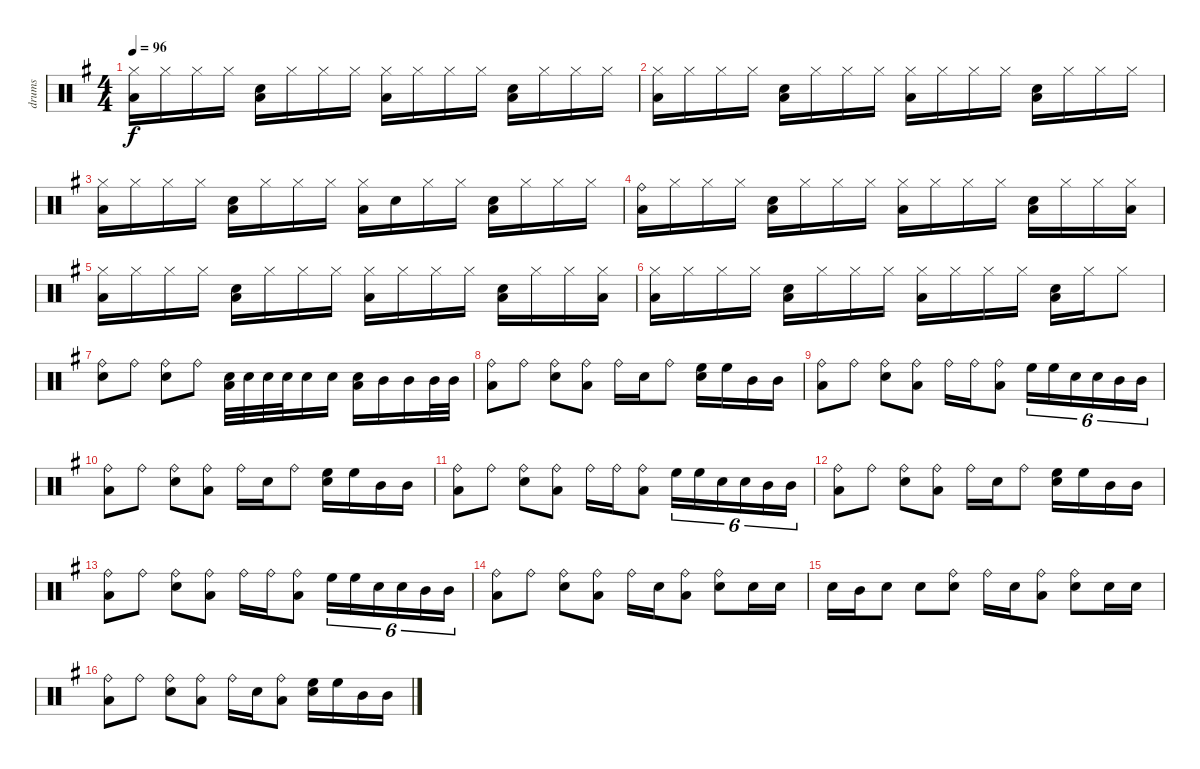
\track ("drums" "drums") {instrument percussion}
\staff {score}
\articulation defaults
\ts (4 4)
\tempo 96
\clef neutral
\ks g
("Hi-Hat (closed)" "Low Floor Tom (hit)").16{dy f} "Hi-Hat (closed)".16 "Hi-Hat (closed)".16 "Hi-Hat (closed)".16 ("Electric Snare (hit)" "Low Floor Tom (hit)").16 "Hi-Hat (closed)".16 "Hi-Hat (closed)".16 "Hi-Hat (closed)".16 ("Hi-Hat (closed)" "Low Floor Tom (hit)").16 "Hi-Hat (closed)".16 "Hi-Hat (closed)".16 "Hi-Hat (closed)".16 ("Electric Snare (hit)" "Low Floor Tom (hit)").16 "Hi-Hat (closed)".16 "Hi-Hat (closed)".16 "Hi-Hat (closed)".16 |
("Hi-Hat (closed)" "Low Floor Tom (hit)").16 "Hi-Hat (closed)".16 "Hi-Hat (closed)".16 "Hi-Hat (closed)".16 ("Electric Snare (hit)" "Low Floor Tom (hit)").16 "Hi-Hat (closed)".16 "Hi-Hat (closed)".16 "Hi-Hat (closed)".16 ("Hi-Hat (closed)" "Low Floor Tom (hit)").16 "Hi-Hat (closed)".16 "Hi-Hat (closed)".16 "Hi-Hat (closed)".16 ("Electric Snare (hit)" "Low Floor Tom (hit)").16 "Hi-Hat (closed)".16 "Hi-Hat (closed)".16 "Hi-Hat (closed)".16 |
("Hi-Hat (closed)" "Low Floor Tom (hit)").16 "Hi-Hat (closed)".16 "Hi-Hat (closed)".16 "Hi-Hat (closed)".16 ("Electric Snare (hit)" "Low Floor Tom (hit)").16 "Hi-Hat (closed)".16 "Hi-Hat (closed)".16 "Hi-Hat (closed)".16 ("Hi-Hat (closed)" "Low Floor Tom (hit)").16 "Electric Snare (hit)".16 "Hi-Hat (closed)".16 "Hi-Hat (closed)".16 ("Electric Snare (hit)" "Low Floor Tom (hit)").16 "Hi-Hat (closed)".16 "Hi-Hat (closed)".16 "Hi-Hat (closed)".16 |
("Ride (bell)" "Low Floor Tom (hit)").16 "Hi-Hat (closed)".16 "Hi-Hat (closed)".16 "Hi-Hat (closed)".16 ("Electric Snare (hit)" "Low Floor Tom (hit)").16 "Hi-Hat (closed)".16 "Hi-Hat (closed)".16 "Hi-Hat (closed)".16 ("Hi-Hat (closed)" "Low Floor Tom (hit)").16 "Hi-Hat (closed)".16 "Hi-Hat (closed)".16 "Hi-Hat (closed)".16 ("Electric Snare (hit)" "Low Floor Tom (hit)").16 "Hi-Hat (closed)".16 "Hi-Hat (closed)".16 ("Hi-Hat (closed)" "Low Floor Tom (hit)").16 |
("Hi-Hat (closed)" "Low Floor Tom (hit)").16 "Hi-Hat (closed)".16 "Hi-Hat (closed)".16 "Hi-Hat (closed)".16 ("Electric Snare (hit)" "Low Floor Tom (hit)").16 "Hi-Hat (closed)".16 "Hi-Hat (closed)".16 "Hi-Hat (closed)".16 ("Hi-Hat (closed)" "Low Floor Tom (hit)").16 "Hi-Hat (closed)".16 "Hi-Hat (closed)".16 "Hi-Hat (closed)".16 ("Electric Snare (hit)" "Low Floor Tom (hit)").16 "Hi-Hat (closed)".16 "Hi-Hat (closed)".16 ("Hi-Hat (closed)" "Low Floor Tom (hit)").16 |
("Hi-Hat (closed)" "Low Floor Tom (hit)").16 "Hi-Hat (closed)".16 "Hi-Hat (closed)".16 "Hi-Hat (closed)".16 ("Electric Snare (hit)" "Low Floor Tom (hit)").16 "Hi-Hat (closed)".16 "Hi-Hat (closed)".16 "Hi-Hat (closed)".16 ("Hi-Hat (closed)" "Low Floor Tom (hit)").16 "Hi-Hat (closed)".16 "Hi-Hat (closed)".16 "Hi-Hat (closed)".16 ("Electric Snare (hit)" "Low Floor Tom (hit)").16 "Hi-Hat (closed)".16 "Hi-Hat (closed)".8 |
("Ride (bell)" "Electric Snare (hit)").8 "Ride (bell)".8 ("Ride (bell)" "Electric Snare (hit)").8 "Ride (bell)".8 ("Electric Snare (hit)" "Low Floor Tom (hit)").32 "Electric Snare (hit)".32 "Electric Snare (hit)".32 "Electric Snare (hit)".32 "Electric Snare (hit)".16 "Electric Snare (hit)".16 ("Electric Snare (hit)" "Low Floor Tom (hit)").16 "Mid Tom (hit)".16 "Mid Tom (hit)".16 "Mid Tom (hit)".32 "Mid Tom (hit)".32 |
("Ride (bell)" "Low Floor Tom (hit)").8 "Ride (bell)".8 ("Ride (bell)" "Electric Snare (hit)").8 ("Ride (bell)" "Low Floor Tom (hit)").8 "Ride (bell)".16 "Electric Snare (hit)".16 "Ride (bell)".8 ("High Floor Tom (hit)" "Electric Snare (hit)").16 "High Floor Tom (hit)".16 "Mid Tom (hit)".16 "Mid Tom (hit)".16 |
("Ride (bell)" "Low Floor Tom (hit)").8 "Ride (bell)".8 ("Ride (bell)" "Electric Snare (hit)").8 ("Ride (bell)" "Low Floor Tom (hit)").8 "Ride (bell)".16 "Ride (bell)".16 ("Ride (bell)" "Low Floor Tom (hit)").8 "High Floor Tom (hit)".16{tu (6 4)} "High Floor Tom (hit)".16{tu (6 4)} "Electric Snare (hit)".16{tu (6 4)} "Electric Snare (hit)".16{tu (6 4)} "Mid Tom (hit)".16{tu (6 4)} "Mid Tom (hit)".16{tu (6 4)} |
("Ride (bell)" "Low Floor Tom (hit)").8 "Ride (bell)".8 ("Ride (bell)" "Electric Snare (hit)").8 ("Ride (bell)" "Low Floor Tom (hit)").8 "Ride (bell)".16 "Electric Snare (hit)".16 "Ride (bell)".8 ("High Floor Tom (hit)" "Electric Snare (hit)").16 "High Floor Tom (hit)".16 "Mid Tom (hit)".16 "Mid Tom (hit)".16 |
("Ride (bell)" "Low Floor Tom (hit)").8 "Ride (bell)".8 ("Ride (bell)" "Electric Snare (hit)").8 ("Ride (bell)" "Low Floor Tom (hit)").8 "Ride (bell)".16 "Ride (bell)".16 ("Ride (bell)" "Low Floor Tom (hit)").8 "High Floor Tom (hit)".16{tu (6 4)} "High Floor Tom (hit)".16{tu (6 4)} "Electric Snare (hit)".16{tu (6 4)} "Electric Snare (hit)".16{tu (6 4)} "Mid Tom (hit)".16{tu (6 4)} "Mid Tom (hit)".16{tu (6 4)} |
("Ride (bell)" "Low Floor Tom (hit)").8 "Ride (bell)".8 ("Ride (bell)" "Electric Snare (hit)").8 ("Ride (bell)" "Low Floor Tom (hit)").8 "Ride (bell)".16 "Electric Snare (hit)".16 "Ride (bell)".8 ("High Floor Tom (hit)" "Electric Snare (hit)").16 "High Floor Tom (hit)".16 "Mid Tom (hit)".16 "Mid Tom (hit)".16 |
("Ride (bell)" "Low Floor Tom (hit)").8 "Ride (bell)".8 ("Ride (bell)" "Electric Snare (hit)").8 ("Ride (bell)" "Low Floor Tom (hit)").8 "Ride (bell)".16 "Ride (bell)".16 ("Ride (bell)" "Low Floor Tom (hit)").8 "High Floor Tom (hit)".16{tu (6 4)} "High Floor Tom (hit)".16{tu (6 4)} "Electric Snare (hit)".16{tu (6 4)} "Electric Snare (hit)".16{tu (6 4)} "Mid Tom (hit)".16{tu (6 4)} "Mid Tom (hit)".16{tu (6 4)} |
("Ride (bell)" "Low Floor Tom (hit)").8 "Ride (bell)".8 ("Ride (bell)" "Electric Snare (hit)").8 ("Ride (bell)" "Low Floor Tom (hit)").8 "Ride (bell)".16 "Electric Snare (hit)".16 ("Ride (bell)" "Low Floor Tom (hit)").8 ("Ride (bell)" "Electric Snare (hit)").8 "Electric Snare (hit)".16 "Electric Snare (hit)".16 |
"Electric Snare (hit)".16 "Mid Tom (hit)".16 "Snare (hit) 2".8 "Electric Snare (hit)".8 ("Ride (bell)" "Electric Snare (hit)").8 "Ride (bell)".16 "Electric Snare (hit)".16 ("Ride (bell)" "Low Floor Tom (hit)").8 ("Ride (bell)" "Electric Snare (hit)").8 "Snare (hit)".16 "Snare (hit) 2".16 |
("Ride (bell)" "Low Floor Tom (hit)").8 "Ride (bell)".8 ("Ride (bell)" "Electric Snare (hit)").8 ("Ride (bell)" "Low Floor Tom (hit)").8 "Ride (bell)".16 "Electric Snare (hit)".16 ("Ride (bell)" "Low Floor Tom (hit)").8 ("High Floor Tom (hit)" "Electric Snare (hit)").16 "High Floor Tom (hit)".16 "Mid Tom (hit)".16 "Mid Tom (hit)".16
